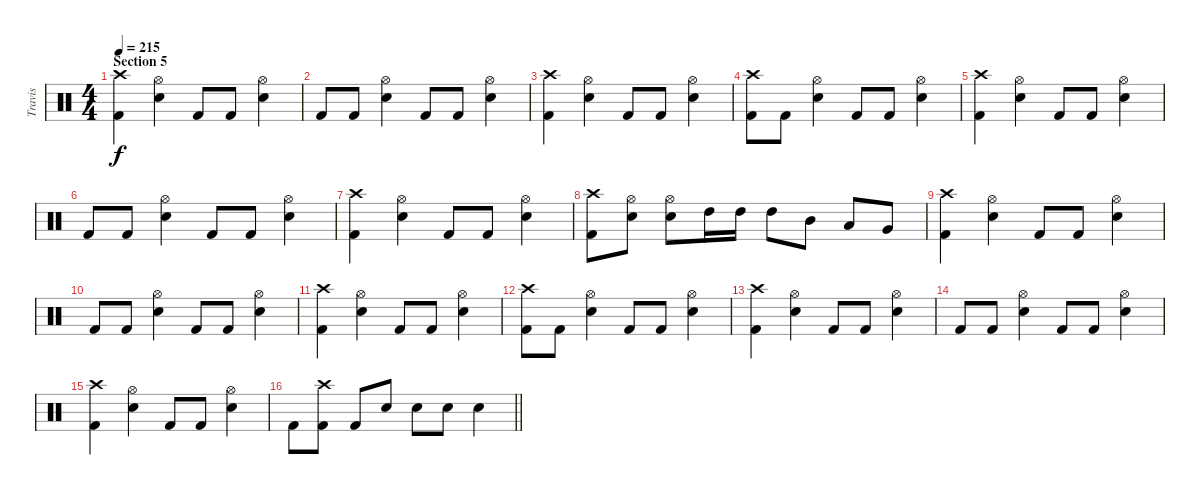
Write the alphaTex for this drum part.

\track ("Travis" "Travis") {instrument percussion}
\staff {score}
\articulation defaults
\ts (4 4)
\section ("" "Section 5")
\tempo 215
\clef neutral
\ks c
("Crash high (hit)" "Kick (hit) 2").4{dy f} ("Hi-Hat (open)" "Snare (hit) 2").4 "Kick (hit) 2".8 "Kick (hit) 2".8 ("Hi-Hat (open)" "Snare (hit) 2").4 |
"Kick (hit) 2".8 "Kick (hit) 2".8 ("Hi-Hat (open)" "Snare (hit) 2").4 "Kick (hit) 2".8 "Kick (hit) 2".8 ("Hi-Hat (open)" "Snare (hit) 2").4 |
("Crash high (hit)" "Kick (hit) 2").4 ("Hi-Hat (open)" "Snare (hit) 2").4 "Kick (hit) 2".8 "Kick (hit) 2".8 ("Hi-Hat (open)" "Snare (hit) 2").4 |
("Crash high (hit)" "Kick (hit) 2").8 "Kick (hit) 2".8 ("Hi-Hat (open)" "Snare (hit) 2").4 "Kick (hit) 2".8 "Kick (hit) 2".8 ("Hi-Hat (open)" "Snare (hit) 2").4 |
("Crash high (hit)" "Kick (hit) 2").4 ("Hi-Hat (open)" "Snare (hit) 2").4 "Kick (hit) 2".8 "Kick (hit) 2".8 ("Hi-Hat (open)" "Snare (hit) 2").4 |
"Kick (hit) 2".8 "Kick (hit) 2".8 ("Hi-Hat (open)" "Snare (hit) 2").4 "Kick (hit) 2".8 "Kick (hit) 2".8 ("Hi-Hat (open)" "Snare (hit) 2").4 |
("Crash high (hit)" "Kick (hit) 2").4 ("Hi-Hat (open)" "Snare (hit) 2").4 "Kick (hit) 2".8 "Kick (hit) 2".8 ("Hi-Hat (open)" "Snare (hit) 2").4 |
("Crash high (hit)" "Kick (hit) 2").8 ("Hi-Hat (open)" "Snare (hit) 2").8 ("Hi-Hat (open)" "Snare (hit) 2").8 "High Tom (hit)".16 "High Tom (hit)".16 "High Tom (hit)".8 "Mid Tom (hit)".8 "Low Tom (hit)".8 "Very Low Tom (hit)".8 |
("Crash high (hit)" "Kick (hit) 2").4 ("Hi-Hat (open)" "Snare (hit) 2").4 "Kick (hit) 2".8 "Kick (hit) 2".8 ("Hi-Hat (open)" "Snare (hit) 2").4 |
"Kick (hit) 2".8 "Kick (hit) 2".8 ("Hi-Hat (open)" "Snare (hit) 2").4 "Kick (hit) 2".8 "Kick (hit) 2".8 ("Hi-Hat (open)" "Snare (hit) 2").4 |
("Crash high (hit)" "Kick (hit) 2").4 ("Hi-Hat (open)" "Snare (hit) 2").4 "Kick (hit) 2".8 "Kick (hit) 2".8 ("Hi-Hat (open)" "Snare (hit) 2").4 |
("Crash high (hit)" "Kick (hit) 2").8 "Kick (hit) 2".8 ("Hi-Hat (open)" "Snare (hit) 2").4 "Kick (hit) 2".8 "Kick (hit) 2".8 ("Hi-Hat (open)" "Snare (hit) 2").4 |
("Crash high (hit)" "Kick (hit) 2").4 ("Hi-Hat (open)" "Snare (hit) 2").4 "Kick (hit) 2".8 "Kick (hit) 2".8 ("Hi-Hat (open)" "Snare (hit) 2").4 |
"Kick (hit) 2".8 "Kick (hit) 2".8 ("Hi-Hat (open)" "Snare (hit) 2").4 "Kick (hit) 2".8 "Kick (hit) 2".8 ("Hi-Hat (open)" "Snare (hit) 2").4 |
("Crash high (hit)" "Kick (hit) 2").4 ("Hi-Hat (open)" "Snare (hit) 2").4 "Kick (hit) 2".8 "Kick (hit) 2".8 ("Hi-Hat (open)" "Snare (hit) 2").4 |
\barLineRight lightlight "Kick (hit) 2".8
("Crash high (hit)" "Kick (hit) 2").8 "Kick (hit) 2".8 "Snare (hit) 2".8 "Snare (hit) 2".8 "Snare (hit) 2".8 "Snare (hit) 2".4
